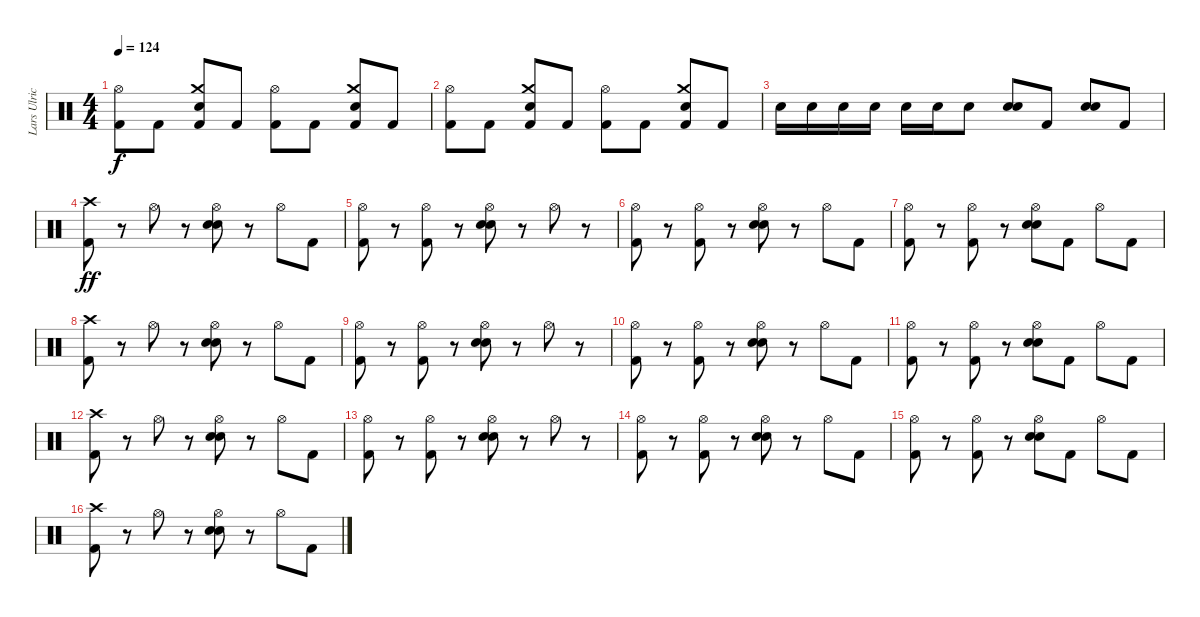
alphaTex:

\track ("Lars Ulrich" "Lars Ulric") {instrument percussion}
\staff {score}
\articulation defaults
\ts (4 4)
\tempo 124
\clef neutral
\ks c
("Hi-Hat (open)" "Kick (hit) 2").8{dy f} "Kick (hit) 2".8 ("Crash medium (hit)" "Electric Snare (hit)" "Kick (hit) 2").8 "Kick (hit) 2".8 ("Hi-Hat (open)" "Kick (hit) 2").8 "Kick (hit) 2".8 ("Crash medium (hit)" "Electric Snare (hit)" "Kick (hit) 2").8 "Kick (hit) 2".8 |
("Hi-Hat (open)" "Kick (hit) 2").8 "Kick (hit) 2".8 ("Crash medium (hit)" "Electric Snare (hit)" "Kick (hit) 2").8 "Kick (hit) 2".8 ("Hi-Hat (open)" "Kick (hit) 2").8 "Kick (hit) 2".8 ("Crash medium (hit)" "Electric Snare (hit)" "Kick (hit) 2").8 "Kick (hit) 2".8 |
"Electric Snare (hit)".16 "Electric Snare (hit)".16 "Electric Snare (hit)".16 "Electric Snare (hit)".16 "Electric Snare (hit)".16 "Electric Snare (hit)".16 "Electric Snare (hit)".8 ("Electric Snare (hit)" "Electric Snare (hit)").8{bd 240} "Kick (hit) 2".8 ("Electric Snare (hit)" "Electric Snare (hit)").8{bd 240} "Kick (hit) 2".8 |
("Crash high (hit)" "Kick (hit) 2").8{dy ff} r.8 "Hi-Hat (open)".8 r.8 ("Hi-Hat (open)" "Electric Snare (hit)" "Electric Snare (hit)").8 r.8 "Hi-Hat (open)".8 "Kick (hit) 2".8 |
("Hi-Hat (open)" "Kick (hit) 2").8 r.8 ("Hi-Hat (open)" "Kick (hit) 2").8 r.8 ("Hi-Hat (open)" "Electric Snare (hit)" "Electric Snare (hit)").8 r.8 "Hi-Hat (open)".8 r.8 |
("Hi-Hat (open)" "Kick (hit) 2").8 r.8 ("Hi-Hat (open)" "Kick (hit) 2").8 r.8 ("Hi-Hat (open)" "Electric Snare (hit)" "Electric Snare (hit)").8 r.8 "Hi-Hat (open)".8 "Kick (hit) 2".8 |
("Hi-Hat (open)" "Kick (hit) 2").8 r.8 ("Hi-Hat (open)" "Kick (hit) 2").8 r.8 ("Hi-Hat (open)" "Electric Snare (hit)" "Electric Snare (hit)").8 "Kick (hit) 2".8 "Hi-Hat (open)".8 "Kick (hit) 2".8 |
("Crash high (hit)" "Kick (hit) 2").8 r.8 "Hi-Hat (open)".8 r.8 ("Hi-Hat (open)" "Electric Snare (hit)" "Electric Snare (hit)").8 r.8 "Hi-Hat (open)".8 "Kick (hit) 2".8 |
("Hi-Hat (open)" "Kick (hit) 2").8 r.8 ("Hi-Hat (open)" "Kick (hit) 2").8 r.8 ("Hi-Hat (open)" "Electric Snare (hit)" "Electric Snare (hit)").8 r.8 "Hi-Hat (open)".8 r.8 |
("Hi-Hat (open)" "Kick (hit) 2").8 r.8 ("Hi-Hat (open)" "Kick (hit) 2").8 r.8 ("Hi-Hat (open)" "Electric Snare (hit)" "Electric Snare (hit)").8 r.8 "Hi-Hat (open)".8 "Kick (hit) 2".8 |
("Hi-Hat (open)" "Kick (hit) 2").8 r.8 ("Hi-Hat (open)" "Kick (hit) 2").8 r.8 ("Hi-Hat (open)" "Electric Snare (hit)" "Electric Snare (hit)").8 "Kick (hit) 2".8 "Hi-Hat (open)".8 "Kick (hit) 2".8 |
("Crash high (hit)" "Kick (hit) 2").8 r.8 "Hi-Hat (open)".8 r.8 ("Hi-Hat (open)" "Electric Snare (hit)" "Electric Snare (hit)").8 r.8 "Hi-Hat (open)".8 "Kick (hit) 2".8 |
("Hi-Hat (open)" "Kick (hit) 2").8 r.8 ("Hi-Hat (open)" "Kick (hit) 2").8 r.8 ("Hi-Hat (open)" "Electric Snare (hit)" "Electric Snare (hit)").8 r.8 "Hi-Hat (open)".8 r.8 |
("Hi-Hat (open)" "Kick (hit) 2").8 r.8 ("Hi-Hat (open)" "Kick (hit) 2").8 r.8 ("Hi-Hat (open)" "Electric Snare (hit)" "Electric Snare (hit)").8 r.8 "Hi-Hat (open)".8 "Kick (hit) 2".8 |
("Hi-Hat (open)" "Kick (hit) 2").8 r.8 ("Hi-Hat (open)" "Kick (hit) 2").8 r.8 ("Hi-Hat (open)" "Electric Snare (hit)" "Electric Snare (hit)").8 "Kick (hit) 2".8 "Hi-Hat (open)".8 "Kick (hit) 2".8 |
("Crash high (hit)" "Kick (hit) 2").8 r.8 "Hi-Hat (open)".8 r.8 ("Hi-Hat (open)" "Electric Snare (hit)" "Electric Snare (hit)").8 r.8 "Hi-Hat (open)".8 "Kick (hit) 2".8
